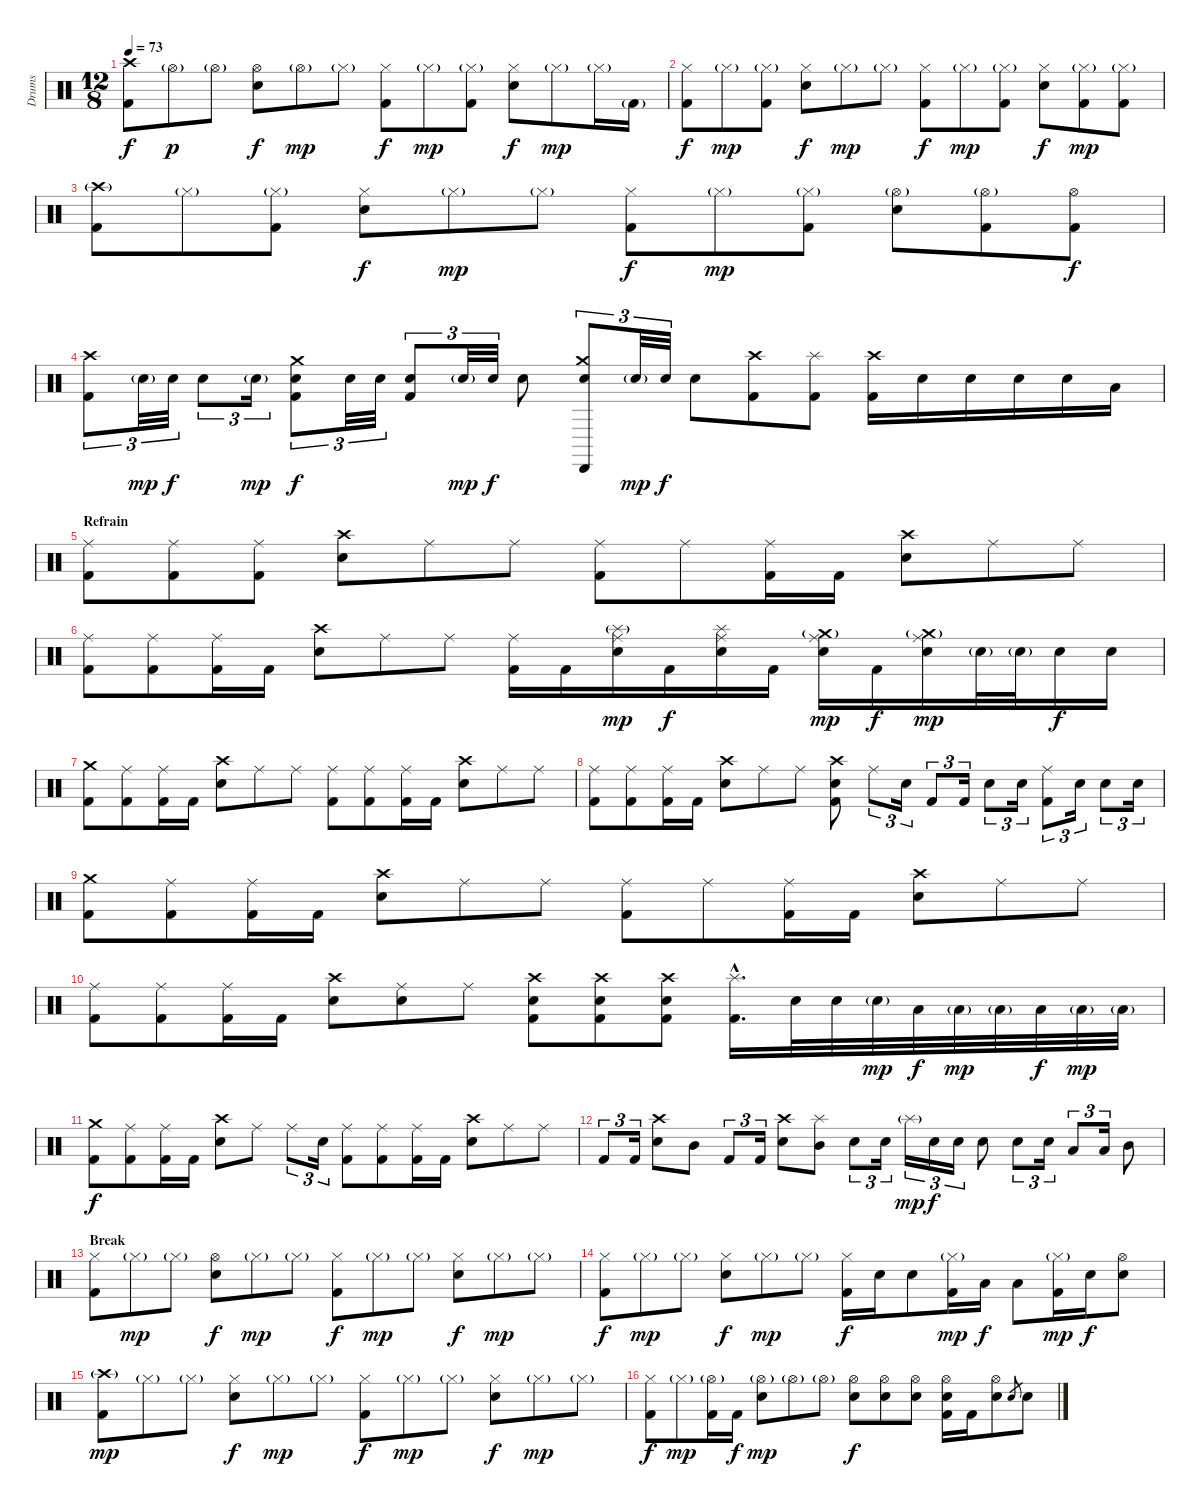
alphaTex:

\track ("Drums" "Drums") {instrument percussion}
\staff {score}
\articulation defaults
\ts (12 8)
\tempo 73
\clef neutral
\ks c
("Crash high (hit)" "Kick (hit) 2").8{dy f} "Hi-Hat (open)"{g}.8{dy p} "Hi-Hat (open)"{g}.8 ("Hi-Hat (open)" "Electric Snare (hit)").8{dy f volume 7} "Hi-Hat (open)"{g}.8{dy mp volume 10} "Hi-Hat (closed)"{g}.8 ("Hi-Hat (closed)" "Kick (hit) 2").8{dy f} "Hi-Hat (closed)"{g}.8{dy mp} ("Hi-Hat (closed)"{g} "Kick (hit) 2").8 ("Hi-Hat (closed)" "Electric Snare (hit)").8{dy f volume 7} "Hi-Hat (closed)"{g}.8{dy mp volume 10} "Hi-Hat (closed)"{g}.16 "Kick (hit) 2"{g}.16 |
("Hi-Hat (closed)" "Kick (hit) 2").8{dy f} "Hi-Hat (closed)"{g}.8{dy mp} ("Hi-Hat (closed)"{g} "Kick (hit) 2").8 ("Hi-Hat (closed)" "Electric Snare (hit)").8{dy f volume 7} "Hi-Hat (closed)"{g}.8{dy mp volume 10} "Hi-Hat (closed)"{g}.8 ("Hi-Hat (closed)" "Kick (hit) 2").8{dy f} "Hi-Hat (closed)"{g}.8{dy mp} ("Hi-Hat (closed)"{g} "Kick (hit) 2").8 ("Hi-Hat (closed)" "Electric Snare (hit)").8{dy f volume 7} ("Hi-Hat (closed)"{g} "Kick (hit) 2").8{dy mp volume 10} ("Hi-Hat (closed)"{g} "Kick (hit) 2").8 |
("Crash high (hit)"{g} "Kick (hit) 2").8 "Hi-Hat (closed)"{g}.8 ("Hi-Hat (closed)"{g} "Kick (hit) 2").8 ("Hi-Hat (closed)" "Electric Snare (hit)").8{dy f volume 7} "Hi-Hat (closed)"{g}.8{dy mp volume 10} "Hi-Hat (closed)"{g}.8 ("Hi-Hat (closed)" "Kick (hit) 2").8{dy f} "Hi-Hat (closed)"{g}.8{dy mp} ("Hi-Hat (closed)"{g} "Kick (hit) 2").8 ("Hi-Hat (open)"{g} "Electric Snare (hit)").8{volume 7} ("Hi-Hat (open)"{g} "Kick (hit) 2").8{volume 10} ("Hi-Hat (open)" "Kick (hit) 2").8{dy f} |
("Crash high (hit)" "Kick (hit) 2").8{tu (3 2)} "Electric Snare (hit)"{g}.32{tu (3 2) dy mp} "Electric Snare (hit)".32{tu (3 2) dy f} "Electric Snare (hit)".8{tu (3 2)} "Electric Snare (hit)"{g}.16{tu (3 2) dy mp} ("Electric Snare (hit)" "Crash medium (hit)" "Kick (hit) 2").8{tu (3 2) dy f} "Electric Snare (hit)".32{tu (3 2)} "Electric Snare (hit)".32{tu (3 2)} ("Electric Snare (hit)" "Kick (hit) 2").8{tu (3 2)} "Electric Snare (hit)"{g}.32{tu (3 2) dy mp} "Electric Snare (hit)".32{tu (3 2) dy f} "Electric Snare (hit)".8 ("Electric Snare (hit)" "Crash medium (hit)" "Cabasa (hit)").8{tu (3 2)} "Electric Snare (hit)"{g}.32{tu (3 2) dy mp} "Electric Snare (hit)".32{tu (3 2) dy f} "Electric Snare (hit)".8 ("Crash high (hit)" "Kick (hit) 2").8 ("Splash (hit)" "Kick (hit) 2").8 ("Crash high (hit)" "Kick (hit) 2").16 "Electric Snare (hit)".16 "Electric Snare (hit)".16 "Electric Snare (hit)".16 "Electric Snare (hit)".16 "Low Tom (hit)".16 |
\section ("" "Refrain")
("Ride (middle)" "Kick (hit) 2").8{volume 10 balance 8} ("Ride (middle)" "Kick (hit) 2").8 ("Ride (middle)" "Kick (hit) 2").8 ("Electric Snare (hit)" "Crash high (hit)").8 "Ride (middle)".8 "Ride (middle)".8 ("Ride (middle)" "Kick (hit) 2").8 "Ride (middle)".8 ("Ride (middle)" "Kick (hit) 2").16 "Kick (hit) 2".16 ("Electric Snare (hit)" "Crash high (hit)").8 "Ride (middle)".8 "Ride (middle)".8 |
("Ride (middle)" "Kick (hit) 2").8 ("Ride (middle)" "Kick (hit) 2").8 ("Ride (middle)" "Kick (hit) 2").16 "Kick (hit) 2".16 ("Electric Snare (hit)" "Crash high (hit)").8 "Ride (middle)".8 "Ride (middle)".8 ("Ride (middle)" "Kick (hit) 2").16 "Kick (hit) 2".16 ("Splash (hit)"{g} "Electric Snare (hit)" "Ride (middle)").16{dy mp} "Kick (hit) 2".16{dy f} ("Splash (hit)" "Electric Snare (hit)" "Ride (middle)").16 "Kick (hit) 2".16 ("Crash medium (hit)"{g} "Electric Snare (hit)" "Ride (middle)").16{dy mp} "Kick (hit) 2".16{dy f} ("Crash medium (hit)"{g} "Electric Snare (hit)" "Ride (middle)").16{dy mp} "Electric Snare (hit)"{g}.32 "Electric Snare (hit)"{g}.32 "Electric Snare (hit)".16{dy f} "Electric Snare (hit)".16 |
("Crash medium (hit)" "Kick (hit) 2").8 ("Ride (middle)" "Kick (hit) 2").8 ("Ride (middle)" "Kick (hit) 2").16 "Kick (hit) 2".16 ("Electric Snare (hit)" "Crash high (hit)").8 "Ride (middle)".8 "Ride (middle)".8 ("Ride (middle)" "Kick (hit) 2").8 ("Ride (middle)" "Kick (hit) 2").8 ("Ride (middle)" "Kick (hit) 2").16 "Kick (hit) 2".16 ("Electric Snare (hit)" "Crash high (hit)").8 "Ride (middle)".8 "Ride (middle)".8 |
("Ride (middle)" "Kick (hit) 2").8 ("Ride (middle)" "Kick (hit) 2").8 ("Ride (middle)" "Kick (hit) 2").16 "Kick (hit) 2".16 ("Electric Snare (hit)" "Crash high (hit)").8 "Ride (middle)".8 "Ride (middle)".8 ("Electric Snare (hit)" "Crash high (hit)" "Kick (hit) 2").8 "Ride (middle)".8{tu (3 2)} "Electric Snare (hit)".16{tu (3 2)} "Kick (hit) 2".8{tu (3 2)} "Kick (hit) 2".16{tu (3 2)} "Electric Snare (hit)".8{tu (3 2)} "Electric Snare (hit)".16{tu (3 2)} ("Ride (middle)" "Kick (hit) 2").8{tu (3 2)} "Electric Snare (hit)".16{tu (3 2)} "Electric Snare (hit)".8{tu (3 2)} "Electric Snare (hit)".16{tu (3 2)} |
("Crash medium (hit)" "Kick (hit) 2").8 ("Ride (middle)" "Kick (hit) 2").8 ("Ride (middle)" "Kick (hit) 2").16 "Kick (hit) 2".16 ("Electric Snare (hit)" "Crash high (hit)").8 "Ride (middle)".8 "Ride (middle)".8 ("Ride (middle)" "Kick (hit) 2").8 "Ride (middle)".8 ("Ride (middle)" "Kick (hit) 2").16 "Kick (hit) 2".16 ("Electric Snare (hit)" "Crash high (hit)").8 "Ride (middle)".8 "Ride (middle)".8 |
("Ride (middle)" "Kick (hit) 2").8 ("Ride (middle)" "Kick (hit) 2").8 ("Ride (middle)" "Kick (hit) 2").16 "Kick (hit) 2".16 ("Electric Snare (hit)" "Crash high (hit)").8 ("Electric Snare (hit)" "Ride (middle)").8 "Ride (middle)".8 ("Electric Snare (hit)" "Crash high (hit)" "Kick (hit) 2").8 ("Electric Snare (hit)" "Crash high (hit)" "Kick (hit) 2").8 ("Electric Snare (hit)" "Crash high (hit)" "Kick (hit) 2").8 ("Splash (hit)"{hac} "Kick (hit) 2"{hac}).16{d} "Electric Snare (hit)".32 "Electric Snare (hit)".32 "Electric Snare (hit)"{g}.32{dy mp} "Low Tom (hit)".32{dy f} "Low Tom (hit)"{g}.32{dy mp} "Low Tom (hit)"{g}.32 "Low Tom (hit)".32{dy f} "Low Tom (hit)"{g}.32{dy mp} "Low Tom (hit)"{g}.32 |
("Crash medium (hit)" "Kick (hit) 2").8{dy f} ("Ride (middle)" "Kick (hit) 2").8 ("Ride (middle)" "Kick (hit) 2").16 "Kick (hit) 2".16 ("Electric Snare (hit)" "Crash high (hit)").8 "Ride (middle)".8 "Ride (middle)".8{tu (3 2)} "Electric Snare (hit)".16{tu (3 2)} ("Ride (middle)" "Kick (hit) 2").8 ("Ride (middle)" "Kick (hit) 2").8 ("Ride (middle)" "Kick (hit) 2").16 "Kick (hit) 2".16 ("Electric Snare (hit)" "Crash high (hit)").8 "Ride (middle)".8 "Ride (middle)".8 |
"Kick (hit) 2".8{tu (3 2)} "Kick (hit) 2".16{tu (3 2)} ("Electric Snare (hit)" "Crash high (hit)").8 "Mid Tom (hit)".8 "Kick (hit) 2".8{tu (3 2)} "Kick (hit) 2".16{tu (3 2)} ("Electric Snare (hit)" "Crash high (hit)").8 ("Mid Tom (hit)" "Splash (hit)").8 "Electric Snare (hit)".8{tu (3 2)} "Electric Snare (hit)".16{tu (3 2)} "Splash (hit)"{g}.16{tu (3 2) dy mp} "Electric Snare (hit)".16{tu (3 2) dy f} "Electric Snare (hit)".16{tu (3 2)} "Electric Snare (hit)".8 "Electric Snare (hit)".8{tu (3 2)} "Electric Snare (hit)".16{tu (3 2)} "Low Tom (hit)".8{tu (3 2)} "Low Tom (hit)".16{tu (3 2)} "Mid Tom (hit)".8 |
\section ("" "Break")
("Hi-Hat (closed)" "Kick (hit) 2").8 "Hi-Hat (closed)"{g}.8{dy mp} "Hi-Hat (closed)"{g}.8 ("Hi-Hat (open)" "Electric Snare (hit)").8{dy f volume 7} "Hi-Hat (closed)"{g}.8{dy mp volume 10} "Hi-Hat (closed)"{g}.8 ("Hi-Hat (closed)" "Kick (hit) 2").8{dy f} "Hi-Hat (closed)"{g}.8{dy mp} "Hi-Hat (closed)"{g}.8 ("Hi-Hat (closed)" "Electric Snare (hit)").8{dy f volume 7} "Hi-Hat (closed)"{g}.8{dy mp volume 10} "Hi-Hat (closed)"{g}.8 |
("Hi-Hat (closed)" "Kick (hit) 2").8{dy f} "Hi-Hat (closed)"{g}.8{dy mp} "Hi-Hat (closed)"{g}.8 ("Hi-Hat (closed)" "Electric Snare (hit)").8{dy f volume 7} "Hi-Hat (closed)"{g}.8{dy mp} "Hi-Hat (closed)"{g}.8{volume 10 balance 8} ("Hi-Hat (closed)" "Kick (hit) 2").16{dy f} "Electric Snare (hit)".16 "Electric Snare (hit)".8 ("Hi-Hat (closed)"{g} "Kick (hit) 2").16{dy mp} "Low Tom (hit)".16{dy f} "Low Tom (hit)".8 ("Hi-Hat (closed)"{g} "Kick (hit) 2").16{dy mp} "Electric Snare (hit)".16{dy f} ("Hi-Hat (open)" "Electric Snare (hit)").8 |
("Crash high (hit)"{g} "Kick (hit) 2").8{dy mp volume 10 balance 8} "Hi-Hat (closed)"{g}.8 "Hi-Hat (closed)"{g}.8 ("Hi-Hat (closed)" "Electric Snare (hit)").8{dy f volume 7} "Hi-Hat (closed)"{g}.8{dy mp volume 10} "Hi-Hat (closed)"{g}.8 ("Hi-Hat (closed)" "Kick (hit) 2").8{dy f} "Hi-Hat (closed)"{g}.8{dy mp} "Hi-Hat (closed)"{g}.8 ("Hi-Hat (closed)" "Electric Snare (hit)").8{dy f volume 7} "Hi-Hat (closed)"{g}.8{dy mp volume 10} "Hi-Hat (closed)"{g}.8 |
("Hi-Hat (closed)" "Kick (hit) 2").8{dy f volume 10 balance 8} "Hi-Hat (closed)"{g}.8{dy mp} ("Hi-Hat (open)"{g} "Kick (hit) 2").16 "Kick (hit) 2".16{dy f} ("Hi-Hat (open)"{g} "Electric Snare (hit)").8{dy mp volume 7} "Hi-Hat (open)"{g}.8{volume 10} "Hi-Hat (open)"{g}.8 ("Hi-Hat (open)" "Electric Snare (hit)").8{dy f} ("Hi-Hat (open)" "Electric Snare (hit)").8 ("Hi-Hat (open)" "Electric Snare (hit)").8 ("Hi-Hat (open)" "Electric Snare (hit)" "Kick (hit) 2").16 "Kick (hit) 2".16 ("Hi-Hat (open)" "Electric Snare (hit)").8 "Snare (hit) 2".8{gr} "Snare (hit) 2".8
